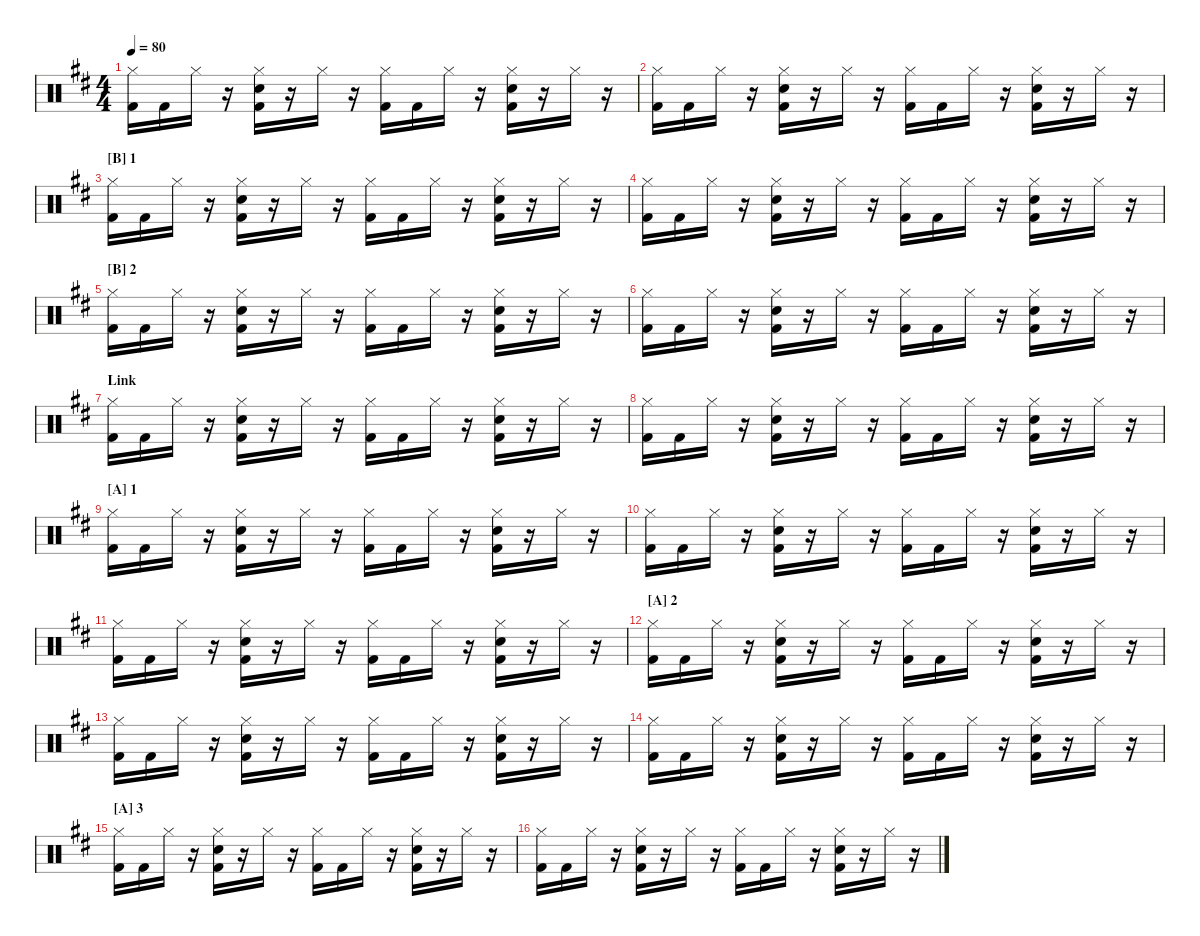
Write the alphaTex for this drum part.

\hideDynamics
\bracketExtendMode nobrackets
\singleTrackTrackNamePolicy hidden
\multiTrackTrackNamePolicy hidden
\otherSystemsTrackNameOrientation horizontal
\track ("Drumkit" "Drums") {instrument percussion}
\staff {score}
\articulation defaults
\ts (4 4)
\tempo 80
\clef neutral
\ks d
("Hi-Hat (closed)"{acc forcenatural} "Kick (hit) 2"{acc forcenatural}).16{dy f beam Down} "Kick (hit) 2"{acc forcenatural}.16{beam Down} "Hi-Hat (closed)"{acc forcenatural}.16{beam Down} r.16{beam Down} ("Hi-Hat (closed)"{acc forcenatural} "Snare (hit) 2"{acc forcenatural} "Kick (hit) 2"{acc forcenatural}).16{beam Down} r.16{beam Down} "Hi-Hat (closed)"{acc forcenatural}.16{beam Down} r.16{beam Down} ("Hi-Hat (closed)"{acc forcenatural} "Kick (hit) 2"{acc forcenatural}).16{beam Down} "Kick (hit) 2"{acc forcenatural}.16{beam Down} "Hi-Hat (closed)"{acc forcenatural}.16{beam Down} r.16{beam Down} ("Hi-Hat (closed)"{acc forcenatural} "Snare (hit) 2"{acc forcenatural} "Kick (hit) 2"{acc forcenatural}).16{beam Down} r.16{beam Down} "Hi-Hat (closed)"{acc forcenatural}.16{beam Down} r.16{beam Down} |
("Hi-Hat (closed)"{acc forcenatural} "Kick (hit) 2"{acc forcenatural}).16{beam Down} "Kick (hit) 2"{acc forcenatural}.16{beam Down} "Hi-Hat (closed)"{acc forcenatural}.16{beam Down} r.16{beam Down} ("Hi-Hat (closed)"{acc forcenatural} "Snare (hit) 2"{acc forcenatural} "Kick (hit) 2"{acc forcenatural}).16{beam Down} r.16{beam Down} "Hi-Hat (closed)"{acc forcenatural}.16{beam Down} r.16{beam Down} ("Hi-Hat (closed)"{acc forcenatural} "Kick (hit) 2"{acc forcenatural}).16{beam Down} "Kick (hit) 2"{acc forcenatural}.16{beam Down} "Hi-Hat (closed)"{acc forcenatural}.16{beam Down} r.16{beam Down} ("Hi-Hat (closed)"{acc forcenatural} "Snare (hit) 2"{acc forcenatural} "Kick (hit) 2"{acc forcenatural}).16{beam Down} r.16{beam Down} "Hi-Hat (closed)"{acc forcenatural}.16{beam Down} r.16{beam Down} |
\section ("B" "1")
("Hi-Hat (closed)"{acc forcenatural} "Kick (hit) 2"{acc forcenatural}).16{beam Down} "Kick (hit) 2"{acc forcenatural}.16{beam Down} "Hi-Hat (closed)"{acc forcenatural}.16{beam Down} r.16{beam Down} ("Hi-Hat (closed)"{acc forcenatural} "Snare (hit) 2"{acc forcenatural} "Kick (hit) 2"{acc forcenatural}).16{beam Down} r.16{beam Down} "Hi-Hat (closed)"{acc forcenatural}.16{beam Down} r.16{beam Down} ("Hi-Hat (closed)"{acc forcenatural} "Kick (hit) 2"{acc forcenatural}).16{beam Down} "Kick (hit) 2"{acc forcenatural}.16{beam Down} "Hi-Hat (closed)"{acc forcenatural}.16{beam Down} r.16{beam Down} ("Hi-Hat (closed)"{acc forcenatural} "Snare (hit) 2"{acc forcenatural} "Kick (hit) 2"{acc forcenatural}).16{beam Down} r.16{beam Down} "Hi-Hat (closed)"{acc forcenatural}.16{beam Down} r.16{beam Down} |
("Hi-Hat (closed)"{acc forcenatural} "Kick (hit) 2"{acc forcenatural}).16{beam Down} "Kick (hit) 2"{acc forcenatural}.16{beam Down} "Hi-Hat (closed)"{acc forcenatural}.16{beam Down} r.16{beam Down} ("Hi-Hat (closed)"{acc forcenatural} "Snare (hit) 2"{acc forcenatural} "Kick (hit) 2"{acc forcenatural}).16{beam Down} r.16{beam Down} "Hi-Hat (closed)"{acc forcenatural}.16{beam Down} r.16{beam Down} ("Hi-Hat (closed)"{acc forcenatural} "Kick (hit) 2"{acc forcenatural}).16{beam Down} "Kick (hit) 2"{acc forcenatural}.16{beam Down} "Hi-Hat (closed)"{acc forcenatural}.16{beam Down} r.16{beam Down} ("Hi-Hat (closed)"{acc forcenatural} "Snare (hit) 2"{acc forcenatural} "Kick (hit) 2"{acc forcenatural}).16{beam Down} r.16{beam Down} "Hi-Hat (closed)"{acc forcenatural}.16{beam Down} r.16{beam Down} |
\section ("B" "2")
("Hi-Hat (closed)"{acc forcenatural} "Kick (hit) 2"{acc forcenatural}).16{beam Down} "Kick (hit) 2"{acc forcenatural}.16{beam Down} "Hi-Hat (closed)"{acc forcenatural}.16{beam Down} r.16{beam Down} ("Hi-Hat (closed)"{acc forcenatural} "Snare (hit) 2"{acc forcenatural} "Kick (hit) 2"{acc forcenatural}).16{beam Down} r.16{beam Down} "Hi-Hat (closed)"{acc forcenatural}.16{beam Down} r.16{beam Down} ("Hi-Hat (closed)"{acc forcenatural} "Kick (hit) 2"{acc forcenatural}).16{beam Down} "Kick (hit) 2"{acc forcenatural}.16{beam Down} "Hi-Hat (closed)"{acc forcenatural}.16{beam Down} r.16{beam Down} ("Hi-Hat (closed)"{acc forcenatural} "Snare (hit) 2"{acc forcenatural} "Kick (hit) 2"{acc forcenatural}).16{beam Down} r.16{beam Down} "Hi-Hat (closed)"{acc forcenatural}.16{beam Down} r.16{beam Down} |
("Hi-Hat (closed)"{acc forcenatural} "Kick (hit) 2"{acc forcenatural}).16{beam Down} "Kick (hit) 2"{acc forcenatural}.16{beam Down} "Hi-Hat (closed)"{acc forcenatural}.16{beam Down} r.16{beam Down} ("Hi-Hat (closed)"{acc forcenatural} "Snare (hit) 2"{acc forcenatural} "Kick (hit) 2"{acc forcenatural}).16{beam Down} r.16{beam Down} "Hi-Hat (closed)"{acc forcenatural}.16{beam Down} r.16{beam Down} ("Hi-Hat (closed)"{acc forcenatural} "Kick (hit) 2"{acc forcenatural}).16{beam Down} "Kick (hit) 2"{acc forcenatural}.16{beam Down} "Hi-Hat (closed)"{acc forcenatural}.16{beam Down} r.16{beam Down} ("Hi-Hat (closed)"{acc forcenatural} "Snare (hit) 2"{acc forcenatural} "Kick (hit) 2"{acc forcenatural}).16{beam Down} r.16{beam Down} "Hi-Hat (closed)"{acc forcenatural}.16{beam Down} r.16{beam Down} |
\section ("" "Link")
("Hi-Hat (closed)"{acc forcenatural} "Kick (hit) 2"{acc forcenatural}).16{beam Down} "Kick (hit) 2"{acc forcenatural}.16{beam Down} "Hi-Hat (closed)"{acc forcenatural}.16{beam Down} r.16{beam Down} ("Hi-Hat (closed)"{acc forcenatural} "Snare (hit) 2"{acc forcenatural} "Kick (hit) 2"{acc forcenatural}).16{beam Down} r.16{beam Down} "Hi-Hat (closed)"{acc forcenatural}.16{beam Down} r.16{beam Down} ("Hi-Hat (closed)"{acc forcenatural} "Kick (hit) 2"{acc forcenatural}).16{beam Down} "Kick (hit) 2"{acc forcenatural}.16{beam Down} "Hi-Hat (closed)"{acc forcenatural}.16{beam Down} r.16{beam Down} ("Hi-Hat (closed)"{acc forcenatural} "Snare (hit) 2"{acc forcenatural} "Kick (hit) 2"{acc forcenatural}).16{beam Down} r.16{beam Down} "Hi-Hat (closed)"{acc forcenatural}.16{beam Down} r.16{beam Down} |
("Hi-Hat (closed)"{acc forcenatural} "Kick (hit) 2"{acc forcenatural}).16{beam Down} "Kick (hit) 2"{acc forcenatural}.16{beam Down} "Hi-Hat (closed)"{acc forcenatural}.16{beam Down} r.16{beam Down} ("Hi-Hat (closed)"{acc forcenatural} "Snare (hit) 2"{acc forcenatural} "Kick (hit) 2"{acc forcenatural}).16{beam Down} r.16{beam Down} "Hi-Hat (closed)"{acc forcenatural}.16{beam Down} r.16{beam Down} ("Hi-Hat (closed)"{acc forcenatural} "Kick (hit) 2"{acc forcenatural}).16{beam Down} "Kick (hit) 2"{acc forcenatural}.16{beam Down} "Hi-Hat (closed)"{acc forcenatural}.16{beam Down} r.16{beam Down} ("Hi-Hat (closed)"{acc forcenatural} "Snare (hit) 2"{acc forcenatural} "Kick (hit) 2"{acc forcenatural}).16{beam Down} r.16{beam Down} "Hi-Hat (closed)"{acc forcenatural}.16{beam Down} r.16{beam Down} |
\section ("A" "1")
("Hi-Hat (closed)"{acc forcenatural} "Kick (hit) 2"{acc forcenatural}).16{beam Down} "Kick (hit) 2"{acc forcenatural}.16{beam Down} "Hi-Hat (closed)"{acc forcenatural}.16{beam Down} r.16{beam Down} ("Hi-Hat (closed)"{acc forcenatural} "Snare (hit) 2"{acc forcenatural} "Kick (hit) 2"{acc forcenatural}).16{beam Down} r.16{beam Down} "Hi-Hat (closed)"{acc forcenatural}.16{beam Down} r.16{beam Down} ("Hi-Hat (closed)"{acc forcenatural} "Kick (hit) 2"{acc forcenatural}).16{beam Down} "Kick (hit) 2"{acc forcenatural}.16{beam Down} "Hi-Hat (closed)"{acc forcenatural}.16{beam Down} r.16{beam Down} ("Hi-Hat (closed)"{acc forcenatural} "Snare (hit) 2"{acc forcenatural} "Kick (hit) 2"{acc forcenatural}).16{beam Down} r.16{beam Down} "Hi-Hat (closed)"{acc forcenatural}.16{beam Down} r.16{beam Down} |
("Hi-Hat (closed)"{acc forcenatural} "Kick (hit) 2"{acc forcenatural}).16{beam Down} "Kick (hit) 2"{acc forcenatural}.16{beam Down} "Hi-Hat (closed)"{acc forcenatural}.16{beam Down} r.16{beam Down} ("Hi-Hat (closed)"{acc forcenatural} "Snare (hit) 2"{acc forcenatural} "Kick (hit) 2"{acc forcenatural}).16{beam Down} r.16{beam Down} "Hi-Hat (closed)"{acc forcenatural}.16{beam Down} r.16{beam Down} ("Hi-Hat (closed)"{acc forcenatural} "Kick (hit) 2"{acc forcenatural}).16{beam Down} "Kick (hit) 2"{acc forcenatural}.16{beam Down} "Hi-Hat (closed)"{acc forcenatural}.16{beam Down} r.16{beam Down} ("Hi-Hat (closed)"{acc forcenatural} "Snare (hit) 2"{acc forcenatural} "Kick (hit) 2"{acc forcenatural}).16{beam Down} r.16{beam Down} "Hi-Hat (closed)"{acc forcenatural}.16{beam Down} r.16{beam Down} |
("Hi-Hat (closed)"{acc forcenatural} "Kick (hit) 2"{acc forcenatural}).16{beam Down} "Kick (hit) 2"{acc forcenatural}.16{beam Down} "Hi-Hat (closed)"{acc forcenatural}.16{beam Down} r.16{beam Down} ("Hi-Hat (closed)"{acc forcenatural} "Snare (hit) 2"{acc forcenatural} "Kick (hit) 2"{acc forcenatural}).16{beam Down} r.16{beam Down} "Hi-Hat (closed)"{acc forcenatural}.16{beam Down} r.16{beam Down} ("Hi-Hat (closed)"{acc forcenatural} "Kick (hit) 2"{acc forcenatural}).16{beam Down} "Kick (hit) 2"{acc forcenatural}.16{beam Down} "Hi-Hat (closed)"{acc forcenatural}.16{beam Down} r.16{beam Down} ("Hi-Hat (closed)"{acc forcenatural} "Snare (hit) 2"{acc forcenatural} "Kick (hit) 2"{acc forcenatural}).16{beam Down} r.16{beam Down} "Hi-Hat (closed)"{acc forcenatural}.16{beam Down} r.16{beam Down} |
\section ("A" "2")
("Hi-Hat (closed)"{acc forcenatural} "Kick (hit) 2"{acc forcenatural}).16{beam Down} "Kick (hit) 2"{acc forcenatural}.16{beam Down} "Hi-Hat (closed)"{acc forcenatural}.16{beam Down} r.16{beam Down} ("Hi-Hat (closed)"{acc forcenatural} "Snare (hit) 2"{acc forcenatural} "Kick (hit) 2"{acc forcenatural}).16{beam Down} r.16{beam Down} "Hi-Hat (closed)"{acc forcenatural}.16{beam Down} r.16{beam Down} ("Hi-Hat (closed)"{acc forcenatural} "Kick (hit) 2"{acc forcenatural}).16{beam Down} "Kick (hit) 2"{acc forcenatural}.16{beam Down} "Hi-Hat (closed)"{acc forcenatural}.16{beam Down} r.16{beam Down} ("Hi-Hat (closed)"{acc forcenatural} "Snare (hit) 2"{acc forcenatural} "Kick (hit) 2"{acc forcenatural}).16{beam Down} r.16{beam Down} "Hi-Hat (closed)"{acc forcenatural}.16{beam Down} r.16{beam Down} |
("Hi-Hat (closed)"{acc forcenatural} "Kick (hit) 2"{acc forcenatural}).16{beam Down} "Kick (hit) 2"{acc forcenatural}.16{beam Down} "Hi-Hat (closed)"{acc forcenatural}.16{beam Down} r.16{beam Down} ("Hi-Hat (closed)"{acc forcenatural} "Snare (hit) 2"{acc forcenatural} "Kick (hit) 2"{acc forcenatural}).16{beam Down} r.16{beam Down} "Hi-Hat (closed)"{acc forcenatural}.16{beam Down} r.16{beam Down} ("Hi-Hat (closed)"{acc forcenatural} "Kick (hit) 2"{acc forcenatural}).16{beam Down} "Kick (hit) 2"{acc forcenatural}.16{beam Down} "Hi-Hat (closed)"{acc forcenatural}.16{beam Down} r.16{beam Down} ("Hi-Hat (closed)"{acc forcenatural} "Snare (hit) 2"{acc forcenatural} "Kick (hit) 2"{acc forcenatural}).16{beam Down} r.16{beam Down} "Hi-Hat (closed)"{acc forcenatural}.16{beam Down} r.16{beam Down} |
("Hi-Hat (closed)"{acc forcenatural} "Kick (hit) 2"{acc forcenatural}).16{beam Down} "Kick (hit) 2"{acc forcenatural}.16{beam Down} "Hi-Hat (closed)"{acc forcenatural}.16{beam Down} r.16{beam Down} ("Hi-Hat (closed)"{acc forcenatural} "Snare (hit) 2"{acc forcenatural} "Kick (hit) 2"{acc forcenatural}).16{beam Down} r.16{beam Down} "Hi-Hat (closed)"{acc forcenatural}.16{beam Down} r.16{beam Down} ("Hi-Hat (closed)"{acc forcenatural} "Kick (hit) 2"{acc forcenatural}).16{beam Down} "Kick (hit) 2"{acc forcenatural}.16{beam Down} "Hi-Hat (closed)"{acc forcenatural}.16{beam Down} r.16{beam Down} ("Hi-Hat (closed)"{acc forcenatural} "Snare (hit) 2"{acc forcenatural} "Kick (hit) 2"{acc forcenatural}).16{beam Down} r.16{beam Down} "Hi-Hat (closed)"{acc forcenatural}.16{beam Down} r.16{beam Down} |
\section ("A" "3")
("Hi-Hat (closed)"{acc forcenatural} "Kick (hit) 2"{acc forcenatural}).16{beam Down} "Kick (hit) 2"{acc forcenatural}.16{beam Down} "Hi-Hat (closed)"{acc forcenatural}.16{beam Down} r.16{beam Down} ("Hi-Hat (closed)"{acc forcenatural} "Snare (hit) 2"{acc forcenatural} "Kick (hit) 2"{acc forcenatural}).16{beam Down} r.16{beam Down} "Hi-Hat (closed)"{acc forcenatural}.16{beam Down} r.16{beam Down} ("Hi-Hat (closed)"{acc forcenatural} "Kick (hit) 2"{acc forcenatural}).16{beam Down} "Kick (hit) 2"{acc forcenatural}.16{beam Down} "Hi-Hat (closed)"{acc forcenatural}.16{beam Down} r.16{beam Down} ("Hi-Hat (closed)"{acc forcenatural} "Snare (hit) 2"{acc forcenatural} "Kick (hit) 2"{acc forcenatural}).16{beam Down} r.16{beam Down} "Hi-Hat (closed)"{acc forcenatural}.16{beam Down} r.16{beam Down} |
("Hi-Hat (closed)"{acc forcenatural} "Kick (hit) 2"{acc forcenatural}).16{beam Down} "Kick (hit) 2"{acc forcenatural}.16{beam Down} "Hi-Hat (closed)"{acc forcenatural}.16{beam Down} r.16{beam Down} ("Hi-Hat (closed)"{acc forcenatural} "Snare (hit) 2"{acc forcenatural} "Kick (hit) 2"{acc forcenatural}).16{beam Down} r.16{beam Down} "Hi-Hat (closed)"{acc forcenatural}.16{beam Down} r.16{beam Down} ("Hi-Hat (closed)"{acc forcenatural} "Kick (hit) 2"{acc forcenatural}).16{beam Down} "Kick (hit) 2"{acc forcenatural}.16{beam Down} "Hi-Hat (closed)"{acc forcenatural}.16{beam Down} r.16{beam Down} ("Hi-Hat (closed)"{acc forcenatural} "Snare (hit) 2"{acc forcenatural} "Kick (hit) 2"{acc forcenatural}).16{beam Down} r.16{beam Down} "Hi-Hat (closed)"{acc forcenatural}.16{beam Down} r.16{beam Down}
